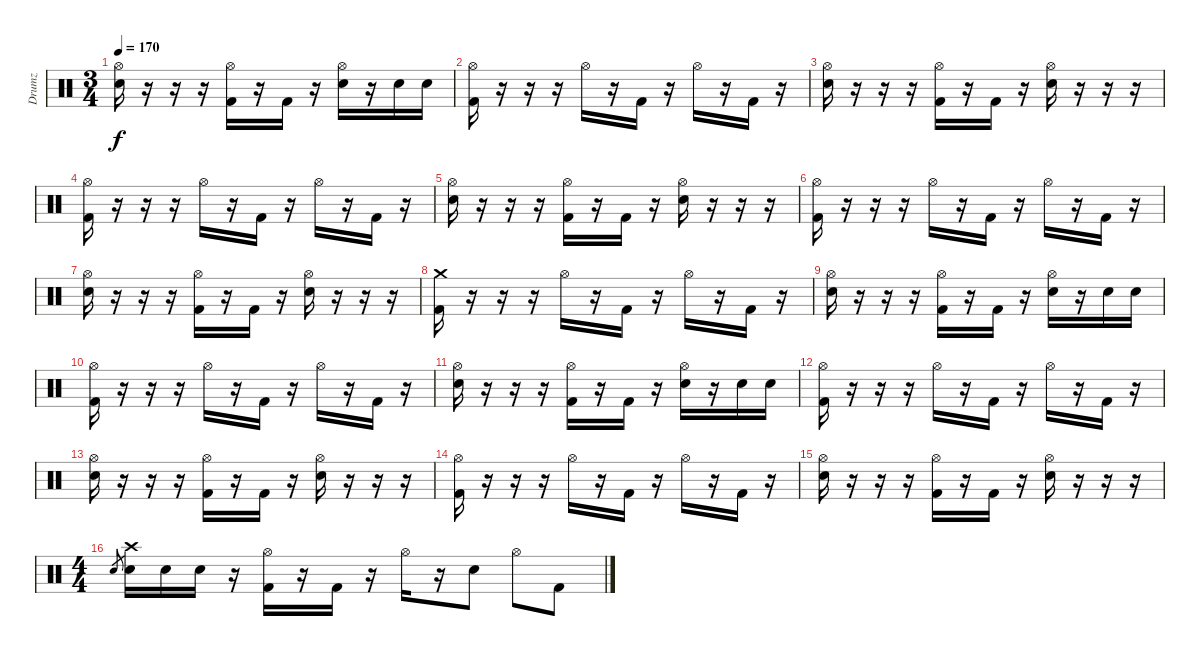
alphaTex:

\track ("Drumz" "Drumz") {instrument percussion}
\staff {score}
\articulation defaults
\ts (3 4)
\tempo 170
\clef neutral
\ks c
("Hi-Hat (open)" "Electric Snare (hit)").16{dy f} r.16 r.16 r.16 ("Hi-Hat (open)" "Kick (hit) 2").16 r.16 "Kick (hit) 2".16 r.16 ("Hi-Hat (open)" "Electric Snare (hit)").16 r.16 "Electric Snare (hit)".16 "Electric Snare (hit)".16 |
("Hi-Hat (open)" "Kick (hit) 2").16 r.16 r.16 r.16 "Hi-Hat (open)".16 r.16 "Kick (hit) 2".16 r.16 "Hi-Hat (open)".16 r.16 "Kick (hit) 2".16 r.16 |
("Hi-Hat (open)" "Electric Snare (hit)").16 r.16 r.16 r.16 ("Hi-Hat (open)" "Kick (hit) 2").16 r.16 "Kick (hit) 2".16 r.16 ("Hi-Hat (open)" "Electric Snare (hit)").16 r.16 r.16 r.16 |
("Hi-Hat (open)" "Kick (hit) 2").16 r.16 r.16 r.16 "Hi-Hat (open)".16 r.16 "Kick (hit) 2".16 r.16 "Hi-Hat (open)".16 r.16 "Kick (hit) 2".16 r.16 |
("Hi-Hat (open)" "Electric Snare (hit)").16 r.16 r.16 r.16 ("Hi-Hat (open)" "Kick (hit) 2").16 r.16 "Kick (hit) 2".16 r.16 ("Hi-Hat (open)" "Electric Snare (hit)").16 r.16 r.16 r.16 |
("Hi-Hat (open)" "Kick (hit) 2").16 r.16 r.16 r.16 "Hi-Hat (open)".16 r.16 "Kick (hit) 2".16 r.16 "Hi-Hat (open)".16 r.16 "Kick (hit) 2".16 r.16 |
("Hi-Hat (open)" "Electric Snare (hit)").16 r.16 r.16 r.16 ("Hi-Hat (open)" "Kick (hit) 2").16 r.16 "Kick (hit) 2".16 r.16 ("Hi-Hat (open)" "Electric Snare (hit)").16 r.16 r.16 r.16 |
("Crash medium (hit)" "Kick (hit) 2").16 r.16 r.16 r.16 "Hi-Hat (open)".16 r.16 "Kick (hit) 2".16 r.16 "Hi-Hat (open)".16 r.16 "Kick (hit) 2".16 r.16 |
("Hi-Hat (open)" "Electric Snare (hit)").16 r.16 r.16 r.16 ("Hi-Hat (open)" "Kick (hit) 2").16 r.16 "Kick (hit) 2".16 r.16 ("Hi-Hat (open)" "Electric Snare (hit)").16 r.16 "Electric Snare (hit)".16 "Electric Snare (hit)".16 |
("Hi-Hat (open)" "Kick (hit) 2").16 r.16 r.16 r.16 "Hi-Hat (open)".16 r.16 "Kick (hit) 2".16 r.16 "Hi-Hat (open)".16 r.16 "Kick (hit) 2".16 r.16 |
("Hi-Hat (open)" "Electric Snare (hit)").16 r.16 r.16 r.16 ("Hi-Hat (open)" "Kick (hit) 2").16 r.16 "Kick (hit) 2".16 r.16 ("Hi-Hat (open)" "Electric Snare (hit)").16 r.16 "Electric Snare (hit)".16 "Electric Snare (hit)".16 |
("Hi-Hat (open)" "Kick (hit) 2").16 r.16 r.16 r.16 "Hi-Hat (open)".16 r.16 "Kick (hit) 2".16 r.16 "Hi-Hat (open)".16 r.16 "Kick (hit) 2".16 r.16 |
("Hi-Hat (open)" "Electric Snare (hit)").16 r.16 r.16 r.16 ("Hi-Hat (open)" "Kick (hit) 2").16 r.16 "Kick (hit) 2".16 r.16 ("Hi-Hat (open)" "Electric Snare (hit)").16 r.16 r.16 r.16 |
("Hi-Hat (open)" "Kick (hit) 2").16 r.16 r.16 r.16 "Hi-Hat (open)".16 r.16 "Kick (hit) 2".16 r.16 "Hi-Hat (open)".16 r.16 "Kick (hit) 2".16 r.16 |
("Hi-Hat (open)" "Electric Snare (hit)").16 r.16 r.16 r.16 ("Hi-Hat (open)" "Kick (hit) 2").16 r.16 "Kick (hit) 2".16 r.16 ("Hi-Hat (open)" "Electric Snare (hit)").16 r.16 r.16 r.16 |
\ts (4 4)
"Electric Snare (hit)".8{gr} ("Crash high (hit)" "Electric Snare (hit)").16 "Electric Snare (hit)".16 "Electric Snare (hit)".16 r.16 ("Hi-Hat (open)" "Kick (hit) 2").16 r.16 "Kick (hit) 2".16 r.16 "Hi-Hat (open)".16 r.16 "Electric Snare (hit)".8 "Hi-Hat (open)".8 "Kick (hit) 2".8
